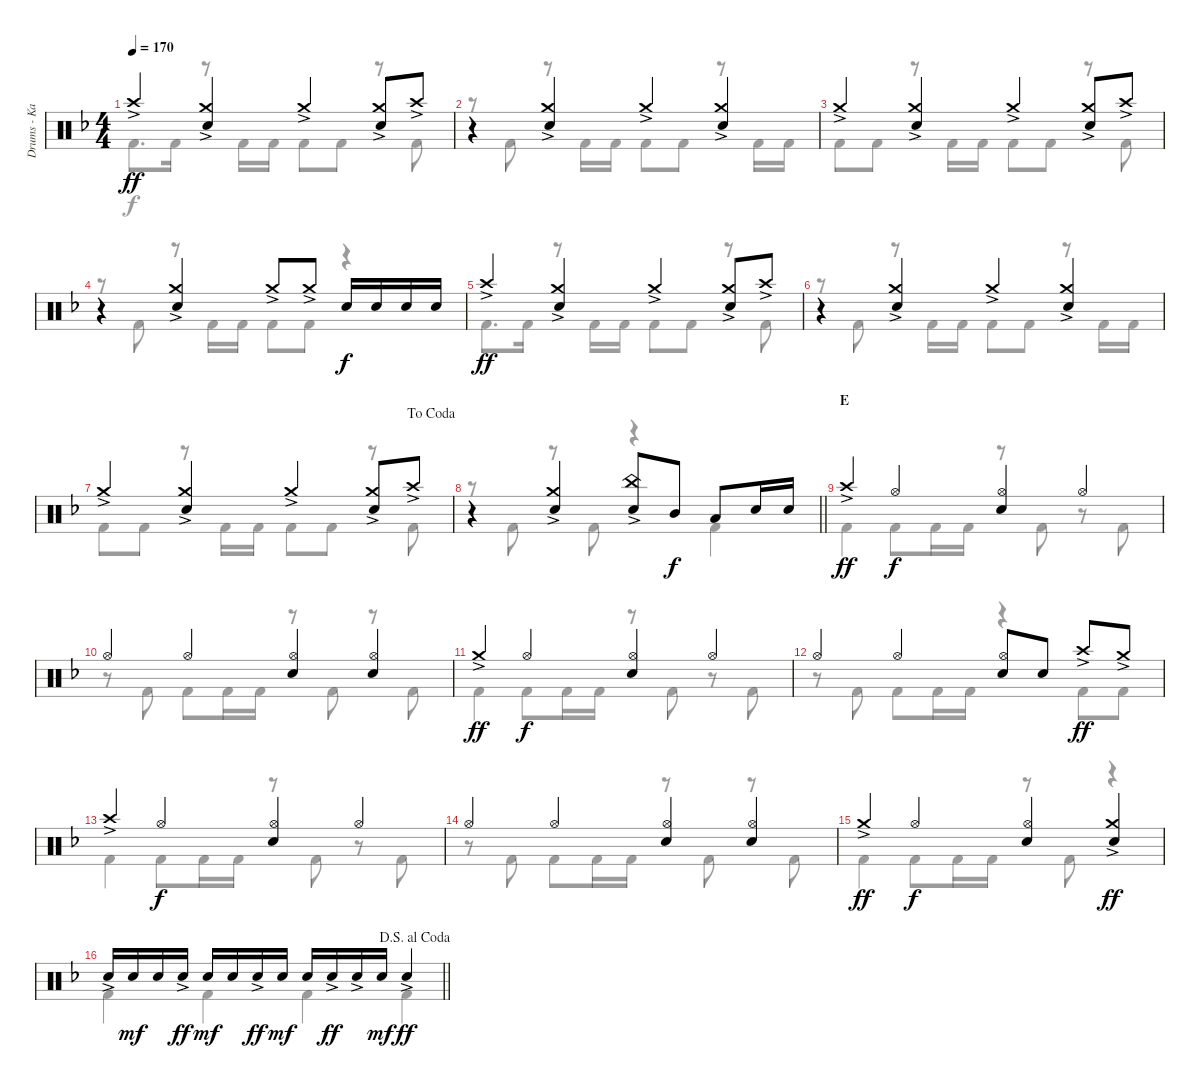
\track ("Drums - Kai" "Drums - Ka") {instrument percussion}
\staff {score}
\articulation defaults
\voice
\ts (4 4)
\tempo 170
\clef neutral
\ks f "Crash high (hit)"{ac}.4{dy ff}
("Crash medium (hit)"{ac} "Snare (hit) 2").4 "Crash medium (hit)"{ac}.4 ("Crash medium (hit)"{ac} "Snare (hit) 2").8 "Crash high (hit)"{ac}.8 |
r.4 ("Crash medium (hit)"{ac} "Snare (hit) 2").4 "Crash medium (hit)"{ac}.4 ("Crash medium (hit)"{ac} "Snare (hit) 2").4 |
"Crash medium (hit)"{ac}.4 ("Crash medium (hit)"{ac} "Snare (hit) 2").4 "Crash medium (hit)"{ac}.4 ("Crash medium (hit)"{ac} "Snare (hit) 2").8 "Crash high (hit)"{ac}.8 |
r.4 ("Crash medium (hit)"{ac} "Snare (hit) 2").4 "Crash medium (hit)"{ac}.8 "Crash medium (hit)"{ac}.8 "Snare (hit) 2".16{dy f} "Snare (hit) 2".16 "Snare (hit) 2".16 "Snare (hit) 2".16 |
"Crash high (hit)"{ac}.4{dy ff} ("Crash medium (hit)"{ac} "Snare (hit) 2").4 "Crash medium (hit)"{ac}.4 ("Crash medium (hit)"{ac} "Snare (hit) 2").8 "Crash high (hit)"{ac}.8 |
r.4 ("Crash medium (hit)"{ac} "Snare (hit) 2").4 "Crash medium (hit)"{ac}.4 ("Crash medium (hit)"{ac} "Snare (hit) 2").4 |
\jump dacoda "Crash medium (hit)"{ac}.4
("Crash medium (hit)"{ac} "Snare (hit) 2").4 "Crash medium (hit)"{ac}.4 ("Crash medium (hit)"{ac} "Snare (hit) 2").8 "Crash high (hit)"{ac}.8 |
\barLineRight lightlight
r.4 ("Crash medium (hit)"{ac} "Snare (hit) 2").4 ("China (hit)"{ac} "Snare (hit) 2").8 "Mid Tom (hit)".8{dy f} "Low Tom (hit)".8 "Snare (hit) 2".16 "Snare (hit) 2".16 |
\section ("" "E")
"Crash high (hit)"{ac}.4{dy ff} "Hi-Hat (open)".4{dy f} ("Hi-Hat (open)" "Snare (hit) 2").4 "Hi-Hat (open)".4 |
"Hi-Hat (open)".4 "Hi-Hat (open)".4 ("Hi-Hat (open)" "Snare (hit) 2").4 ("Hi-Hat (open)" "Snare (hit) 2").4 |
"Crash medium (hit)"{ac}.4{dy ff} "Hi-Hat (open)".4{dy f} ("Hi-Hat (open)" "Snare (hit) 2").4 "Hi-Hat (open)".4 |
"Hi-Hat (open)".4 "Hi-Hat (open)".4 ("Hi-Hat (open)" "Snare (hit) 2").8 "Snare (hit) 2".8 "Crash high (hit)"{ac}.8{dy ff} "Crash medium (hit)"{ac}.8 |
"Crash high (hit)"{ac}.4 "Hi-Hat (open)".4{dy f} ("Hi-Hat (open)" "Snare (hit) 2").4 "Hi-Hat (open)".4 |
"Hi-Hat (open)".4 "Hi-Hat (open)".4 ("Hi-Hat (open)" "Snare (hit) 2").4 ("Hi-Hat (open)" "Snare (hit) 2").4 |
"Crash medium (hit)"{ac}.4{dy ff} "Hi-Hat (open)".4{dy f} ("Hi-Hat (open)" "Snare (hit) 2").4 ("Crash medium (hit)"{ac} "Snare (hit) 2").4{dy ff} |
\jump dalsegnoalcoda
\barLineRight lightlight "Snare (hit) 2"{ac}.16 "Snare (hit) 2".16{dy mf} "Snare (hit) 2".16 "Snare (hit) 2"{ac}.16{dy ff} "Snare (hit) 2".16{dy mf} "Snare (hit) 2".16 "Snare (hit) 2"{ac}.16{dy ff} "Snare (hit) 2".16{dy mf} "Snare (hit) 2".16 "Snare (hit) 2"{ac}.16{dy ff} "Snare (hit) 2"{ac}.16 "Snare (hit) 2".16{dy mf} "Snare (hit) 2"{ac}.4{dy ff}
\voice
\clef neutral
\ottava regular
\simile none
\ks f "Kick (hit) 2".8{d dy f} "Kick (hit) 2".16
r.8 "Kick (hit) 2".16 "Kick (hit) 2".16 "Kick (hit) 2".8 "Kick (hit) 2".8 r.8 "Kick (hit) 2".8 |
r.8 "Kick (hit) 2".8 r.8 "Kick (hit) 2".16 "Kick (hit) 2".16 "Kick (hit) 2".8 "Kick (hit) 2".8 r.8 "Kick (hit) 2".16 "Kick (hit) 2".16 |
"Kick (hit) 2".8 "Kick (hit) 2".8 r.8 "Kick (hit) 2".16 "Kick (hit) 2".16 "Kick (hit) 2".8 "Kick (hit) 2".8 r.8 "Kick (hit) 2".8 |
r.8 "Kick (hit) 2".8 r.8 "Kick (hit) 2".16 "Kick (hit) 2".16 "Kick (hit) 2".8 "Kick (hit) 2".8 r.4 |
"Kick (hit) 2".8{d} "Kick (hit) 2".16 r.8 "Kick (hit) 2".16 "Kick (hit) 2".16 "Kick (hit) 2".8 "Kick (hit) 2".8 r.8 "Kick (hit) 2".8 |
r.8 "Kick (hit) 2".8 r.8 "Kick (hit) 2".16 "Kick (hit) 2".16 "Kick (hit) 2".8 "Kick (hit) 2".8 r.8 "Kick (hit) 2".16 "Kick (hit) 2".16 |
"Kick (hit) 2".8 "Kick (hit) 2".8 r.8 "Kick (hit) 2".16 "Kick (hit) 2".16 "Kick (hit) 2".8 "Kick (hit) 2".8 r.8 "Kick (hit) 2".8 |
\barLineRight lightlight
r.8 "Kick (hit) 2".8 r.8 "Kick (hit) 2".8 r.4 "Kick (hit) 2".4 |
"Kick (hit) 2".4 "Kick (hit) 2".8 "Kick (hit) 2".16 "Kick (hit) 2".16 r.8 "Kick (hit) 2".8 r.8 "Kick (hit) 2".8 |
r.8 "Kick (hit) 2".8 "Kick (hit) 2".8 "Kick (hit) 2".16 "Kick (hit) 2".16 r.8 "Kick (hit) 2".8 r.8 "Kick (hit) 2".8 |
"Kick (hit) 2".4 "Kick (hit) 2".8 "Kick (hit) 2".16 "Kick (hit) 2".16 r.8 "Kick (hit) 2".8 r.8 "Kick (hit) 2".8 |
r.8 "Kick (hit) 2".8 "Kick (hit) 2".8 "Kick (hit) 2".16 "Kick (hit) 2".16 r.4 "Kick (hit) 2".8 "Kick (hit) 2".8 |
"Kick (hit) 2".4 "Kick (hit) 2".8 "Kick (hit) 2".16 "Kick (hit) 2".16 r.8 "Kick (hit) 2".8 r.8 "Kick (hit) 2".8 |
r.8 "Kick (hit) 2".8 "Kick (hit) 2".8 "Kick (hit) 2".16 "Kick (hit) 2".16 r.8 "Kick (hit) 2".8 r.8 "Kick (hit) 2".8 |
"Kick (hit) 2".4 "Kick (hit) 2".8 "Kick (hit) 2".16 "Kick (hit) 2".16 r.8 "Kick (hit) 2".8 r.4 |
\barLineRight lightlight "Kick (hit) 2".4 "Kick (hit) 2".4 "Kick (hit) 2".4 "Kick (hit) 2".4
